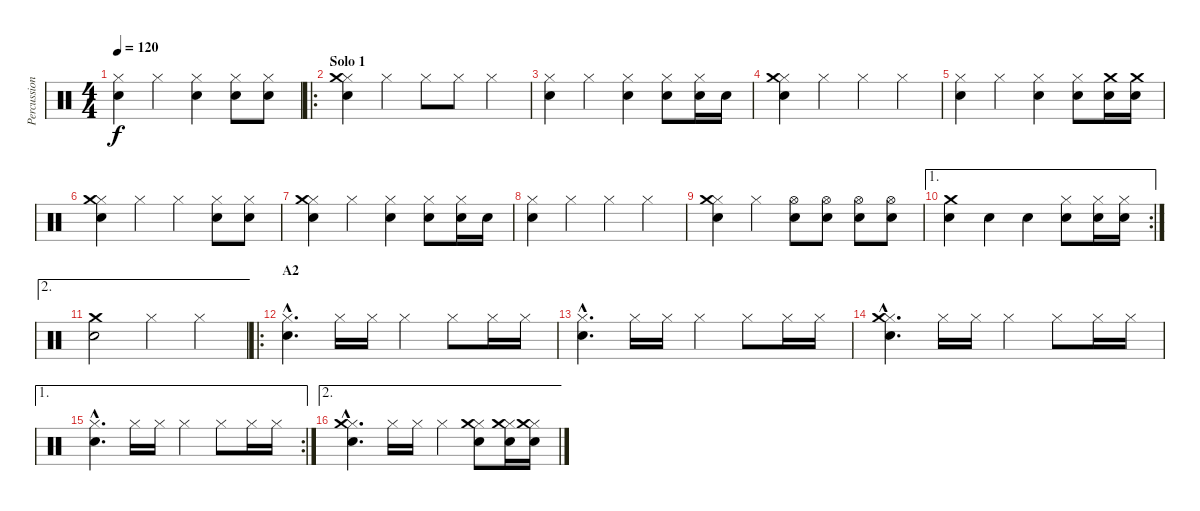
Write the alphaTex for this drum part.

\track ("Percussions" "Percussion") {instrument percussion}
\staff {score}
\articulation defaults
\ts (4 4)
\tempo 120
\clef neutral
\ks c
("Hi-Hat (closed)" "Electric Snare (hit)").4{dy f} "Hi-Hat (closed)".4 ("Hi-Hat (closed)" "Electric Snare (hit)").4 ("Hi-Hat (closed)" "Electric Snare (hit)").8 ("Hi-Hat (closed)" "Electric Snare (hit)").8 |
\ro
\section ("" "Solo 1")
("Hi-Hat (closed)" "Electric Snare (hit)" "Crash medium (hit)").4 "Hi-Hat (closed)".4 "Hi-Hat (closed)".8 "Hi-Hat (closed)".8 "Hi-Hat (closed)".4 |
("Hi-Hat (closed)" "Electric Snare (hit)").4 "Hi-Hat (closed)".4 ("Hi-Hat (closed)" "Electric Snare (hit)").4 ("Hi-Hat (closed)" "Electric Snare (hit)").8 ("Hi-Hat (closed)" "Electric Snare (hit)").16 "Electric Snare (hit)".16 |
("Hi-Hat (closed)" "Electric Snare (hit)" "Crash medium (hit)").4 "Hi-Hat (closed)".4 "Hi-Hat (closed)".4 "Hi-Hat (closed)".4 |
("Hi-Hat (closed)" "Electric Snare (hit)").4 "Hi-Hat (closed)".4 ("Hi-Hat (closed)" "Electric Snare (hit)").4 ("Hi-Hat (closed)" "Electric Snare (hit)").8 ("Crash medium (hit)" "Electric Snare (hit)").16 ("Crash medium (hit)" "Electric Snare (hit)").16 |
("Hi-Hat (closed)" "Electric Snare (hit)" "Crash medium (hit)").4 "Hi-Hat (closed)".4 "Hi-Hat (closed)".4 ("Hi-Hat (closed)" "Electric Snare (hit)").8 ("Hi-Hat (closed)" "Electric Snare (hit)").8 |
("Hi-Hat (closed)" "Electric Snare (hit)" "Crash medium (hit)").4 "Hi-Hat (closed)".4 ("Hi-Hat (closed)" "Electric Snare (hit)").4 ("Hi-Hat (closed)" "Electric Snare (hit)").8 ("Hi-Hat (closed)" "Electric Snare (hit)").16 "Electric Snare (hit)".16 |
("Hi-Hat (closed)" "Electric Snare (hit)").4 "Hi-Hat (closed)".4 "Hi-Hat (closed)".4 "Hi-Hat (closed)".4 |
("Hi-Hat (closed)" "Electric Snare (hit)" "Crash medium (hit)").4 "Hi-Hat (closed)".4 ("Hi-Hat (open)" "Electric Snare (hit)").8 ("Hi-Hat (open)" "Electric Snare (hit)").8 ("Hi-Hat (open)" "Electric Snare (hit)").8 ("Hi-Hat (open)" "Electric Snare (hit)").8 |
\ae 1
\rc 2
("Crash medium (hit)" "Electric Snare (hit)").4 "Electric Snare (hit)".4 "Electric Snare (hit)".4 ("Hi-Hat (closed)" "Electric Snare (hit)").8 ("Hi-Hat (closed)" "Electric Snare (hit)").16 ("Hi-Hat (closed)" "Electric Snare (hit)").16 |
\ae 2
("Crash medium (hit)" "Electric Snare (hit)").2 "Hi-Hat (closed)".4 "Hi-Hat (closed)".4 |
\ro
\section ("" "A2")
("Hi-Hat (closed)"{hac} "Electric Snare (hit)"{hac}).4{d volume 10} "Hi-Hat (closed)".16 "Hi-Hat (closed)".16 "Hi-Hat (closed)".4 "Hi-Hat (closed)".8 "Hi-Hat (closed)".16 "Hi-Hat (closed)".16 |
("Hi-Hat (closed)"{hac} "Electric Snare (hit)"{hac}).4{d} "Hi-Hat (closed)".16 "Hi-Hat (closed)".16 "Hi-Hat (closed)".4 "Hi-Hat (closed)".8 "Hi-Hat (closed)".16 "Hi-Hat (closed)".16 |
("Hi-Hat (closed)"{hac} "Electric Snare (hit)"{hac} "Crash medium (hit)"{hac}).4{d} "Hi-Hat (closed)".16 "Hi-Hat (closed)".16 "Hi-Hat (closed)".4 "Hi-Hat (closed)".8 "Hi-Hat (closed)".16 "Hi-Hat (closed)".16 |
\ae 1
\rc 2
("Hi-Hat (closed)"{hac} "Electric Snare (hit)"{hac}).4{d} "Hi-Hat (closed)".16 "Hi-Hat (closed)".16 "Hi-Hat (closed)".4 "Hi-Hat (closed)".8 "Hi-Hat (closed)".16 "Hi-Hat (closed)".16 |
\ae 2
("Hi-Hat (closed)"{hac} "Electric Snare (hit)"{hac} "Crash medium (hit)"{hac}).4{d} "Hi-Hat (closed)".16 "Hi-Hat (closed)".16 "Hi-Hat (closed)".4 ("Hi-Hat (closed)" "Crash medium (hit)" "Electric Snare (hit)").8 ("Hi-Hat (closed)" "Crash medium (hit)" "Electric Snare (hit)").16 ("Hi-Hat (closed)" "Crash medium (hit)" "Electric Snare (hit)").16
